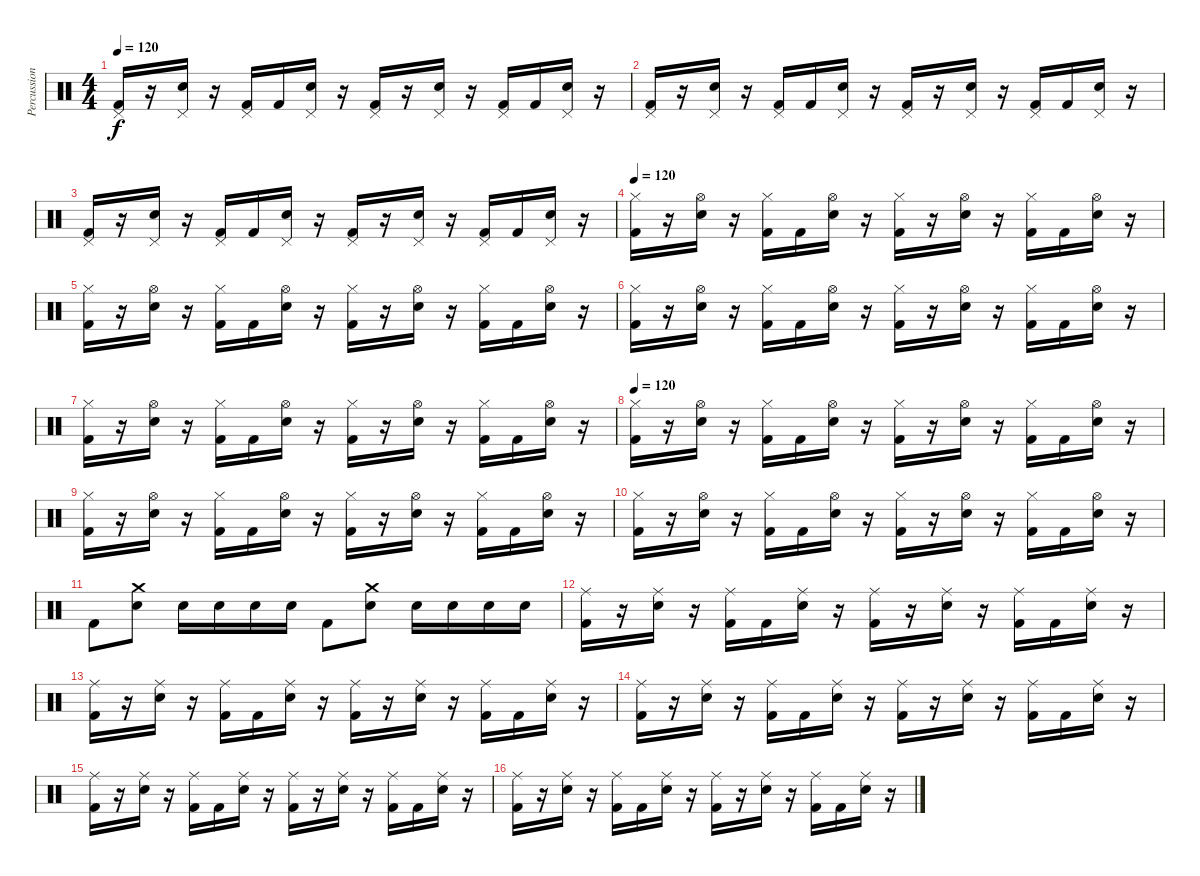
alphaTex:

\track ("Percussion" "Percussion") {instrument percussion}
\staff {score}
\articulation defaults
\ts (4 4)
\tempo 120
\clef neutral
\ks c
("Pedal Hi-Hat (hit)" "Kick (hit) 2").16{dy f} r.16 ("Pedal Hi-Hat (hit)" "Electric Snare (hit)").16 r.16 ("Pedal Hi-Hat (hit)" "Kick (hit) 2").16 "Kick (hit) 2".16 ("Pedal Hi-Hat (hit)" "Electric Snare (hit)").16 r.16 ("Pedal Hi-Hat (hit)" "Kick (hit) 2").16 r.16 ("Pedal Hi-Hat (hit)" "Electric Snare (hit)").16 r.16 ("Pedal Hi-Hat (hit)" "Kick (hit) 2").16 "Kick (hit) 2".16 ("Pedal Hi-Hat (hit)" "Electric Snare (hit)").16 r.16 |
("Pedal Hi-Hat (hit)" "Kick (hit) 2").16 r.16 ("Pedal Hi-Hat (hit)" "Electric Snare (hit)").16 r.16 ("Pedal Hi-Hat (hit)" "Kick (hit) 2").16 "Kick (hit) 2".16 ("Pedal Hi-Hat (hit)" "Electric Snare (hit)").16 r.16 ("Pedal Hi-Hat (hit)" "Kick (hit) 2").16 r.16 ("Pedal Hi-Hat (hit)" "Electric Snare (hit)").16 r.16 ("Pedal Hi-Hat (hit)" "Kick (hit) 2").16 "Kick (hit) 2".16 ("Pedal Hi-Hat (hit)" "Electric Snare (hit)").16 r.16 |
("Pedal Hi-Hat (hit)" "Kick (hit) 2").16 r.16 ("Pedal Hi-Hat (hit)" "Electric Snare (hit)").16 r.16 ("Pedal Hi-Hat (hit)" "Kick (hit) 2").16 "Kick (hit) 2".16 ("Pedal Hi-Hat (hit)" "Electric Snare (hit)").16 r.16 ("Pedal Hi-Hat (hit)" "Kick (hit) 2").16 r.16 ("Pedal Hi-Hat (hit)" "Electric Snare (hit)").16 r.16 ("Pedal Hi-Hat (hit)" "Kick (hit) 2").16 "Kick (hit) 2".16 ("Pedal Hi-Hat (hit)" "Electric Snare (hit)").16 r.16 |
\tempo 120
("Hi-Hat (closed)" "Kick (hit) 2").16 r.16 ("Hi-Hat (open)" "Electric Snare (hit)").16 r.16 ("Hi-Hat (closed)" "Kick (hit) 2").16 "Kick (hit) 2".16 ("Hi-Hat (open)" "Electric Snare (hit)").16 r.16 ("Hi-Hat (closed)" "Kick (hit) 2").16 r.16 ("Hi-Hat (open)" "Electric Snare (hit)").16 r.16 ("Hi-Hat (closed)" "Kick (hit) 2").16 "Kick (hit) 2".16 ("Hi-Hat (open)" "Electric Snare (hit)").16 r.16 |
("Hi-Hat (closed)" "Kick (hit) 2").16 r.16 ("Hi-Hat (open)" "Electric Snare (hit)").16 r.16 ("Hi-Hat (closed)" "Kick (hit) 2").16 "Kick (hit) 2".16 ("Hi-Hat (open)" "Electric Snare (hit)").16 r.16 ("Hi-Hat (closed)" "Kick (hit) 2").16 r.16 ("Hi-Hat (open)" "Electric Snare (hit)").16 r.16 ("Hi-Hat (closed)" "Kick (hit) 2").16 "Kick (hit) 2".16 ("Hi-Hat (open)" "Electric Snare (hit)").16 r.16 |
("Hi-Hat (closed)" "Kick (hit) 2").16 r.16 ("Hi-Hat (open)" "Electric Snare (hit)").16 r.16 ("Hi-Hat (closed)" "Kick (hit) 2").16 "Kick (hit) 2".16 ("Hi-Hat (open)" "Electric Snare (hit)").16 r.16 ("Hi-Hat (closed)" "Kick (hit) 2").16 r.16 ("Hi-Hat (open)" "Electric Snare (hit)").16 r.16 ("Hi-Hat (closed)" "Kick (hit) 2").16 "Kick (hit) 2".16 ("Hi-Hat (open)" "Electric Snare (hit)").16 r.16 |
("Hi-Hat (closed)" "Kick (hit) 2").16 r.16 ("Hi-Hat (open)" "Electric Snare (hit)").16 r.16 ("Hi-Hat (closed)" "Kick (hit) 2").16 "Kick (hit) 2".16 ("Hi-Hat (open)" "Electric Snare (hit)").16 r.16 ("Hi-Hat (closed)" "Kick (hit) 2").16 r.16 ("Hi-Hat (open)" "Electric Snare (hit)").16 r.16 ("Hi-Hat (closed)" "Kick (hit) 2").16 "Kick (hit) 2".16 ("Hi-Hat (open)" "Electric Snare (hit)").16 r.16 |
\tempo 120
("Hi-Hat (closed)" "Kick (hit) 2").16 r.16 ("Hi-Hat (open)" "Electric Snare (hit)").16 r.16 ("Hi-Hat (closed)" "Kick (hit) 2").16 "Kick (hit) 2".16 ("Hi-Hat (open)" "Electric Snare (hit)").16 r.16 ("Hi-Hat (closed)" "Kick (hit) 2").16 r.16 ("Hi-Hat (open)" "Electric Snare (hit)").16 r.16 ("Hi-Hat (closed)" "Kick (hit) 2").16 "Kick (hit) 2".16 ("Hi-Hat (open)" "Electric Snare (hit)").16 r.16 |
("Hi-Hat (closed)" "Kick (hit) 2").16 r.16 ("Hi-Hat (open)" "Electric Snare (hit)").16 r.16 ("Hi-Hat (closed)" "Kick (hit) 2").16 "Kick (hit) 2".16 ("Hi-Hat (open)" "Electric Snare (hit)").16 r.16 ("Hi-Hat (closed)" "Kick (hit) 2").16 r.16 ("Hi-Hat (open)" "Electric Snare (hit)").16 r.16 ("Hi-Hat (closed)" "Kick (hit) 2").16 "Kick (hit) 2".16 ("Hi-Hat (open)" "Electric Snare (hit)").16 r.16 |
("Hi-Hat (closed)" "Kick (hit) 2").16 r.16 ("Hi-Hat (open)" "Electric Snare (hit)").16 r.16 ("Hi-Hat (closed)" "Kick (hit) 2").16 "Kick (hit) 2".16 ("Hi-Hat (open)" "Electric Snare (hit)").16 r.16 ("Hi-Hat (closed)" "Kick (hit) 2").16 r.16 ("Hi-Hat (open)" "Electric Snare (hit)").16 r.16 ("Hi-Hat (closed)" "Kick (hit) 2").16 "Kick (hit) 2".16 ("Hi-Hat (open)" "Electric Snare (hit)").16 r.16 |
"Kick (hit) 2".8 ("Crash medium (hit)" "Electric Snare (hit)").8 "Electric Snare (hit)".16 "Electric Snare (hit)".16 "Electric Snare (hit)".16 "Electric Snare (hit)".16 "Kick (hit) 2".8 ("Crash medium (hit)" "Electric Snare (hit)").8 "Electric Snare (hit)".16 "Electric Snare (hit)".16 "Electric Snare (hit)".16 "Electric Snare (hit)".16 |
("Ride (middle)" "Kick (hit) 2").16 r.16 ("Ride (middle)" "Electric Snare (hit)").16 r.16 ("Ride (middle)" "Kick (hit) 2").16 "Kick (hit) 2".16 ("Ride (middle)" "Electric Snare (hit)").16 r.16 ("Ride (middle)" "Kick (hit) 2").16 r.16 ("Ride (middle)" "Electric Snare (hit)").16 r.16 ("Ride (middle)" "Kick (hit) 2").16 "Kick (hit) 2".16 ("Ride (middle)" "Electric Snare (hit)").16 r.16 |
("Ride (middle)" "Kick (hit) 2").16 r.16 ("Ride (middle)" "Electric Snare (hit)").16 r.16 ("Ride (middle)" "Kick (hit) 2").16 "Kick (hit) 2".16 ("Ride (middle)" "Electric Snare (hit)").16 r.16 ("Ride (middle)" "Kick (hit) 2").16 r.16 ("Ride (middle)" "Electric Snare (hit)").16 r.16 ("Ride (middle)" "Kick (hit) 2").16 "Kick (hit) 2".16 ("Ride (middle)" "Electric Snare (hit)").16 r.16 |
("Ride (middle)" "Kick (hit) 2").16 r.16 ("Ride (middle)" "Electric Snare (hit)").16 r.16 ("Ride (middle)" "Kick (hit) 2").16 "Kick (hit) 2".16 ("Ride (middle)" "Electric Snare (hit)").16 r.16 ("Ride (middle)" "Kick (hit) 2").16 r.16 ("Ride (middle)" "Electric Snare (hit)").16 r.16 ("Ride (middle)" "Kick (hit) 2").16 "Kick (hit) 2".16 ("Ride (middle)" "Electric Snare (hit)").16 r.16 |
("Ride (middle)" "Kick (hit) 2").16 r.16 ("Ride (middle)" "Electric Snare (hit)").16 r.16 ("Ride (middle)" "Kick (hit) 2").16 "Kick (hit) 2".16 ("Ride (middle)" "Electric Snare (hit)").16 r.16 ("Ride (middle)" "Kick (hit) 2").16 r.16 ("Ride (middle)" "Electric Snare (hit)").16 r.16 ("Ride (middle)" "Kick (hit) 2").16 "Kick (hit) 2".16 ("Ride (middle)" "Electric Snare (hit)").16 r.16 |
("Ride (middle)" "Kick (hit) 2").16 r.16 ("Ride (middle)" "Electric Snare (hit)").16 r.16 ("Ride (middle)" "Kick (hit) 2").16 "Kick (hit) 2".16 ("Ride (middle)" "Electric Snare (hit)").16 r.16 ("Ride (middle)" "Kick (hit) 2").16 r.16 ("Ride (middle)" "Electric Snare (hit)").16 r.16 ("Ride (middle)" "Kick (hit) 2").16 "Kick (hit) 2".16 ("Ride (middle)" "Electric Snare (hit)").16 r.16
